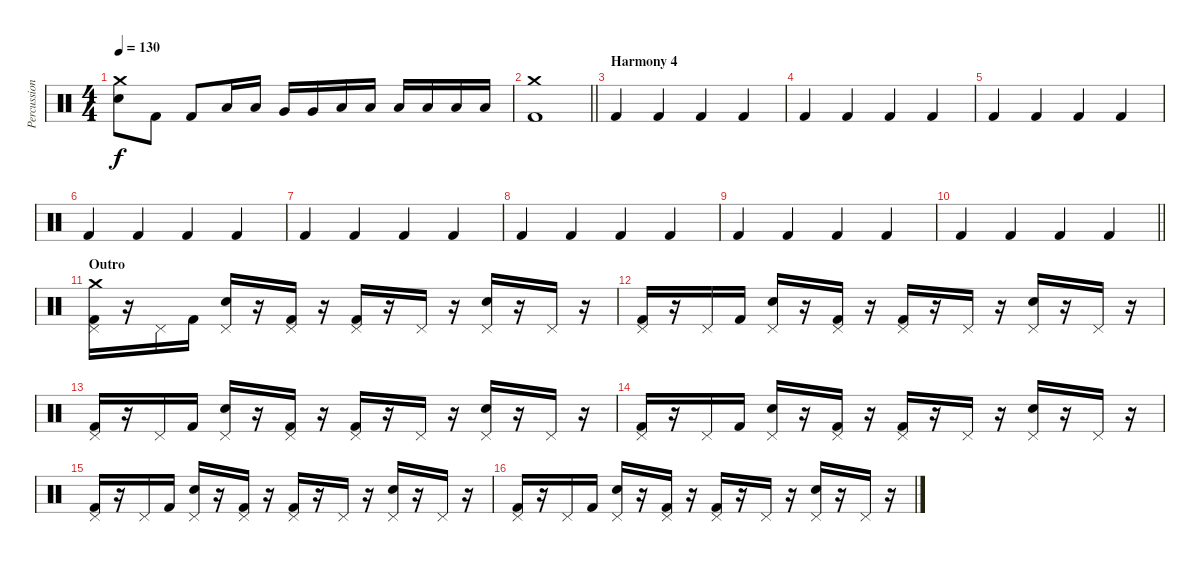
\track ("Percussion" "Percussion") {instrument percussion}
\staff {score}
\articulation defaults
\ts (4 4)
\tempo 130
\clef neutral
\ks c
("Electric Snare (hit)" "Crash medium (hit)").8{dy f} "Kick (hit) 2".8 "Kick (hit) 2".8 "Low Tom (hit)".16 "Low Tom (hit)".16 "Very Low Tom (hit)".16 "Very Low Tom (hit)".16 "Low Floor Tom (hit)".16 "Low Floor Tom (hit)".16 "Low Floor Tom (hit)".16 "Low Floor Tom (hit)".16 "Low Floor Tom (hit)".16 "Low Floor Tom (hit)".16 |
\barLineRight lightlight
("Kick (hit) 2" "Crash medium (hit)").1 |
\section ("" "Harmony 4")
"Kick (hit) 2".4 "Kick (hit) 2".4 "Kick (hit) 2".4 "Kick (hit) 2".4 |
"Kick (hit) 2".4 "Kick (hit) 2".4 "Kick (hit) 2".4 "Kick (hit) 2".4 |
"Kick (hit) 2".4 "Kick (hit) 2".4 "Kick (hit) 2".4 "Kick (hit) 2".4 |
"Kick (hit) 2".4 "Kick (hit) 2".4 "Kick (hit) 2".4 "Kick (hit) 2".4 |
"Kick (hit) 2".4 "Kick (hit) 2".4 "Kick (hit) 2".4 "Kick (hit) 2".4 |
"Kick (hit) 2".4 "Kick (hit) 2".4 "Kick (hit) 2".4 "Kick (hit) 2".4 |
"Kick (hit) 2".4 "Kick (hit) 2".4 "Kick (hit) 2".4 "Kick (hit) 2".4 |
\barLineRight lightlight "Kick (hit) 2".4 "Kick (hit) 2".4 "Kick (hit) 2".4 "Kick (hit) 2".4
|
\section ("" "Outro")
("Kick (hit) 2" "Pedal Hi-Hat (hit)" "Crash medium (hit)").16 r.16 "Pedal Hi-Hat (hit)".16 "Kick (hit) 2".16 ("Electric Snare (hit)" "Pedal Hi-Hat (hit)").16 r.16 ("Kick (hit) 2" "Pedal Hi-Hat (hit)").16 r.16 ("Kick (hit) 2" "Pedal Hi-Hat (hit)").16 r.16 "Pedal Hi-Hat (hit)".16 r.16 ("Electric Snare (hit)" "Pedal Hi-Hat (hit)").16 r.16 "Pedal Hi-Hat (hit)".16 r.16 |
("Kick (hit) 2" "Pedal Hi-Hat (hit)").16 r.16 "Pedal Hi-Hat (hit)".16 "Kick (hit) 2".16 ("Electric Snare (hit)" "Pedal Hi-Hat (hit)").16 r.16 ("Kick (hit) 2" "Pedal Hi-Hat (hit)").16 r.16 ("Kick (hit) 2" "Pedal Hi-Hat (hit)").16 r.16 "Pedal Hi-Hat (hit)".16 r.16 ("Electric Snare (hit)" "Pedal Hi-Hat (hit)").16 r.16 "Pedal Hi-Hat (hit)".16 r.16 |
("Kick (hit) 2" "Pedal Hi-Hat (hit)").16 r.16 "Pedal Hi-Hat (hit)".16 "Kick (hit) 2".16 ("Electric Snare (hit)" "Pedal Hi-Hat (hit)").16 r.16 ("Kick (hit) 2" "Pedal Hi-Hat (hit)").16 r.16 ("Kick (hit) 2" "Pedal Hi-Hat (hit)").16 r.16 "Pedal Hi-Hat (hit)".16 r.16 ("Electric Snare (hit)" "Pedal Hi-Hat (hit)").16 r.16 "Pedal Hi-Hat (hit)".16 r.16 |
("Kick (hit) 2" "Pedal Hi-Hat (hit)").16 r.16 "Pedal Hi-Hat (hit)".16 "Kick (hit) 2".16 ("Electric Snare (hit)" "Pedal Hi-Hat (hit)").16 r.16 ("Kick (hit) 2" "Pedal Hi-Hat (hit)").16 r.16 ("Kick (hit) 2" "Pedal Hi-Hat (hit)").16 r.16 "Pedal Hi-Hat (hit)".16 r.16 ("Electric Snare (hit)" "Pedal Hi-Hat (hit)").16 r.16 "Pedal Hi-Hat (hit)".16 r.16 |
("Kick (hit) 2" "Pedal Hi-Hat (hit)").16 r.16 "Pedal Hi-Hat (hit)".16 "Kick (hit) 2".16 ("Electric Snare (hit)" "Pedal Hi-Hat (hit)").16 r.16 ("Kick (hit) 2" "Pedal Hi-Hat (hit)").16 r.16 ("Kick (hit) 2" "Pedal Hi-Hat (hit)").16 r.16 "Pedal Hi-Hat (hit)".16 r.16 ("Electric Snare (hit)" "Pedal Hi-Hat (hit)").16 r.16 "Pedal Hi-Hat (hit)".16 r.16 |
("Kick (hit) 2" "Pedal Hi-Hat (hit)").16 r.16 "Pedal Hi-Hat (hit)".16 "Kick (hit) 2".16 ("Electric Snare (hit)" "Pedal Hi-Hat (hit)").16 r.16 ("Kick (hit) 2" "Pedal Hi-Hat (hit)").16 r.16 ("Kick (hit) 2" "Pedal Hi-Hat (hit)").16 r.16 "Pedal Hi-Hat (hit)".16 r.16 ("Electric Snare (hit)" "Pedal Hi-Hat (hit)").16 r.16 "Pedal Hi-Hat (hit)".16 r.16
